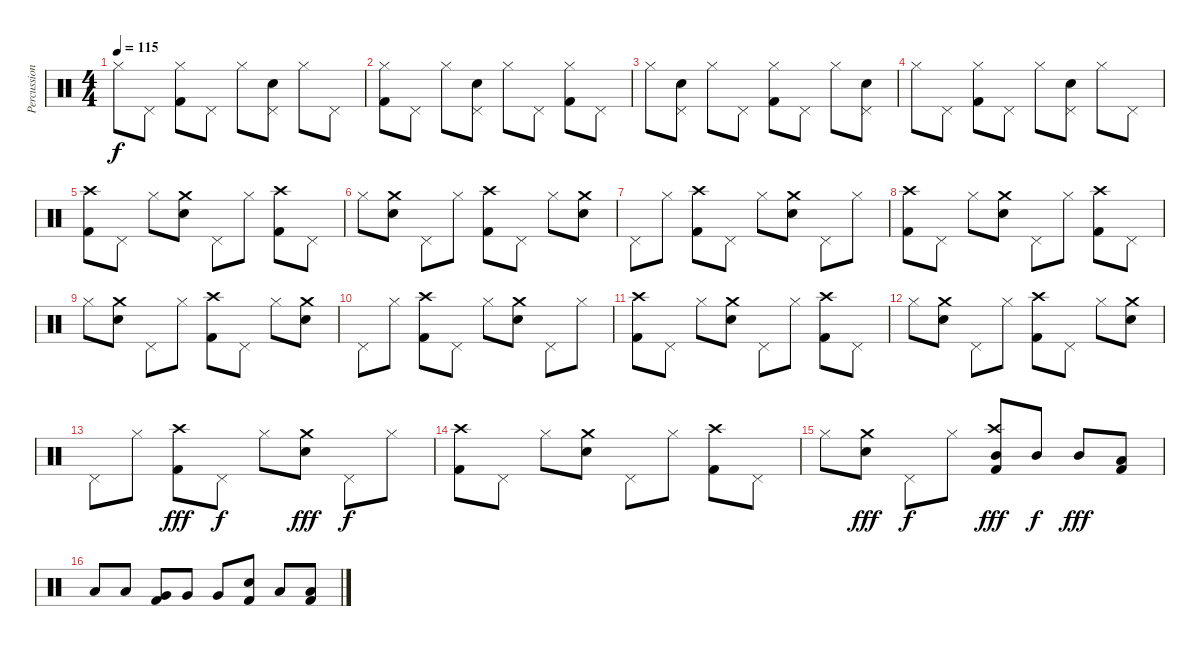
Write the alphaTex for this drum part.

\track ("Percussion" "Percussion") {instrument percussion}
\staff {score}
\articulation defaults
\ts (4 4)
\tempo 115
\clef neutral
\ks c "Hi-Hat (closed)".8{dy f} "Pedal Hi-Hat (hit)".8
("Hi-Hat (closed)" "Kick (hit) 2").8 "Pedal Hi-Hat (hit)".8 "Hi-Hat (closed)".8 ("Pedal Hi-Hat (hit)" "Electric Snare (hit)").8 "Hi-Hat (closed)".8 "Pedal Hi-Hat (hit)".8 |
("Hi-Hat (closed)" "Kick (hit) 2").8 "Pedal Hi-Hat (hit)".8 "Hi-Hat (closed)".8 ("Pedal Hi-Hat (hit)" "Electric Snare (hit)").8 "Hi-Hat (closed)".8 "Pedal Hi-Hat (hit)".8 ("Hi-Hat (closed)" "Kick (hit) 2").8 "Pedal Hi-Hat (hit)".8 |
"Hi-Hat (closed)".8 ("Pedal Hi-Hat (hit)" "Electric Snare (hit)").8 "Hi-Hat (closed)".8 "Pedal Hi-Hat (hit)".8 ("Hi-Hat (closed)" "Kick (hit) 2").8 "Pedal Hi-Hat (hit)".8 "Hi-Hat (closed)".8 ("Pedal Hi-Hat (hit)" "Electric Snare (hit)").8 |
"Hi-Hat (closed)".8 "Pedal Hi-Hat (hit)".8 ("Hi-Hat (closed)" "Kick (hit) 2").8 "Pedal Hi-Hat (hit)".8 "Hi-Hat (closed)".8 ("Pedal Hi-Hat (hit)" "Electric Snare (hit)").8 "Hi-Hat (closed)".8 "Pedal Hi-Hat (hit)".8 |
("Crash high (hit)" "Kick (hit) 2").8 "Pedal Hi-Hat (hit)".8 "Hi-Hat (closed)".8 ("Crash medium (hit)" "Electric Snare (hit)").8 "Pedal Hi-Hat (hit)".8 "Hi-Hat (closed)".8 ("Crash high (hit)" "Kick (hit) 2").8 "Pedal Hi-Hat (hit)".8 |
"Hi-Hat (closed)".8 ("Crash medium (hit)" "Electric Snare (hit)").8 "Pedal Hi-Hat (hit)".8 "Hi-Hat (closed)".8 ("Crash high (hit)" "Kick (hit) 2").8 "Pedal Hi-Hat (hit)".8 "Hi-Hat (closed)".8 ("Crash medium (hit)" "Electric Snare (hit)").8 |
"Pedal Hi-Hat (hit)".8 "Hi-Hat (closed)".8 ("Crash high (hit)" "Kick (hit) 2").8 "Pedal Hi-Hat (hit)".8 "Hi-Hat (closed)".8 ("Crash medium (hit)" "Electric Snare (hit)").8 "Pedal Hi-Hat (hit)".8 "Hi-Hat (closed)".8 |
("Crash high (hit)" "Kick (hit) 2").8 "Pedal Hi-Hat (hit)".8 "Hi-Hat (closed)".8 ("Crash medium (hit)" "Electric Snare (hit)").8 "Pedal Hi-Hat (hit)".8 "Hi-Hat (closed)".8 ("Crash high (hit)" "Kick (hit) 2").8 "Pedal Hi-Hat (hit)".8 |
"Hi-Hat (closed)".8 ("Crash medium (hit)" "Electric Snare (hit)").8 "Pedal Hi-Hat (hit)".8 "Hi-Hat (closed)".8 ("Crash high (hit)" "Kick (hit) 2").8 "Pedal Hi-Hat (hit)".8 "Hi-Hat (closed)".8 ("Crash medium (hit)" "Electric Snare (hit)").8 |
"Pedal Hi-Hat (hit)".8 "Hi-Hat (closed)".8 ("Crash high (hit)" "Kick (hit) 2").8 "Pedal Hi-Hat (hit)".8 "Hi-Hat (closed)".8 ("Crash medium (hit)" "Electric Snare (hit)").8 "Pedal Hi-Hat (hit)".8 "Hi-Hat (closed)".8 |
("Crash high (hit)" "Kick (hit) 2").8 "Pedal Hi-Hat (hit)".8 "Hi-Hat (closed)".8 ("Crash medium (hit)" "Electric Snare (hit)").8 "Pedal Hi-Hat (hit)".8 "Hi-Hat (closed)".8 ("Crash high (hit)" "Kick (hit) 2").8 "Pedal Hi-Hat (hit)".8 |
"Hi-Hat (closed)".8 ("Crash medium (hit)" "Electric Snare (hit)").8 "Pedal Hi-Hat (hit)".8 "Hi-Hat (closed)".8 ("Crash high (hit)" "Kick (hit) 2").8 "Pedal Hi-Hat (hit)".8 "Hi-Hat (closed)".8 ("Crash medium (hit)" "Electric Snare (hit)").8 |
"Pedal Hi-Hat (hit)".8 "Hi-Hat (closed)".8 ("Crash high (hit)" "Kick (hit) 2").8{dy fff} "Pedal Hi-Hat (hit)".8{dy f} "Hi-Hat (closed)".8 ("Crash medium (hit)" "Electric Snare (hit)").8{dy fff} "Pedal Hi-Hat (hit)".8{dy f} "Hi-Hat (closed)".8 |
("Crash high (hit)" "Kick (hit) 2").8 "Pedal Hi-Hat (hit)".8 "Hi-Hat (closed)".8 ("Crash medium (hit)" "Electric Snare (hit)").8 "Pedal Hi-Hat (hit)".8 "Hi-Hat (closed)".8 ("Crash high (hit)" "Kick (hit) 2").8 "Pedal Hi-Hat (hit)".8 |
"Hi-Hat (closed)".8 ("Crash medium (hit)" "Electric Snare (hit)").8{dy fff} "Pedal Hi-Hat (hit)".8{dy f} "Hi-Hat (closed)".8 ("Crash high (hit)" "Mid Tom (hit)" "Kick (hit) 2").8{dy fff} "Mid Tom (hit)".8{dy f} "Mid Tom (hit)".8{dy fff} ("Low Tom (hit)" "Kick (hit) 2").8 |
"Low Tom (hit)".8 "Low Tom (hit)".8 ("Very Low Tom (hit)" "Kick (hit) 2").8 "Very Low Tom (hit)".8 "Very Low Tom (hit)".8 ("Electric Snare (hit)" "Kick (hit) 2").8 "Low Floor Tom (hit)".8 ("Low Floor Tom (hit)" "Kick (hit) 2").8
